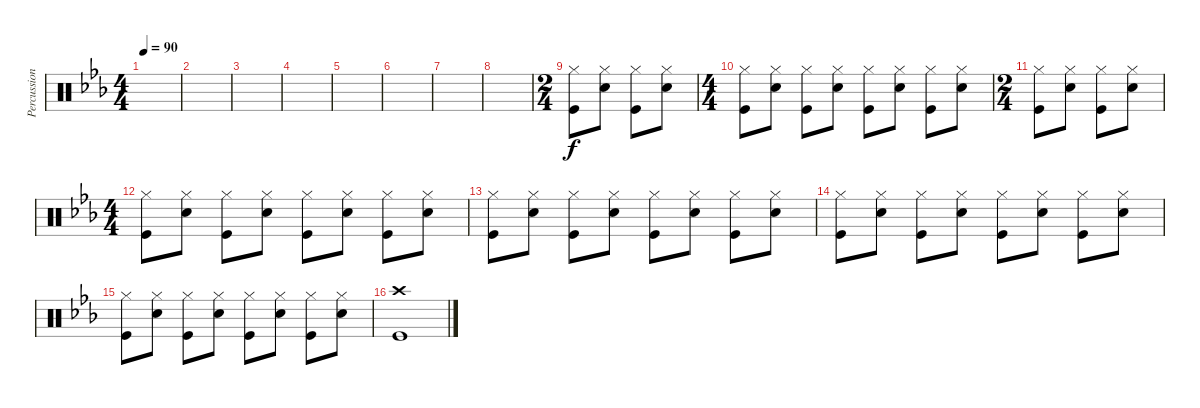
\track ("Percussions" "Percussion") {instrument percussion}
\staff {score}
\articulation defaults
\ts (4 4)
\tempo 90
\clef neutral
\ks eb
|
|
|
|
|
|
|
|
\ts (2 4)
("Hi-Hat (closed)" "Kick (hit)").8 ("Hi-Hat (closed)" "Snare (hit) 2").8 ("Hi-Hat (closed)" "Kick (hit)").8 ("Hi-Hat (closed)" "Snare (hit) 2").8 |
\ts (4 4)
("Hi-Hat (closed)" "Kick (hit)").8 ("Hi-Hat (closed)" "Snare (hit) 2").8 ("Hi-Hat (closed)" "Kick (hit)").8 ("Hi-Hat (closed)" "Snare (hit) 2").8 ("Hi-Hat (closed)" "Kick (hit)").8 ("Hi-Hat (closed)" "Snare (hit) 2").8 ("Hi-Hat (closed)" "Kick (hit)").8 ("Hi-Hat (closed)" "Snare (hit) 2").8 |
\ts (2 4)
("Hi-Hat (closed)" "Kick (hit)").8 ("Hi-Hat (closed)" "Snare (hit) 2").8 ("Hi-Hat (closed)" "Kick (hit)").8 ("Hi-Hat (closed)" "Snare (hit) 2").8 |
\ts (4 4)
("Hi-Hat (closed)" "Kick (hit)").8 ("Hi-Hat (closed)" "Snare (hit) 2").8 ("Hi-Hat (closed)" "Kick (hit)").8 ("Hi-Hat (closed)" "Snare (hit) 2").8 ("Hi-Hat (closed)" "Kick (hit)").8 ("Hi-Hat (closed)" "Snare (hit) 2").8 ("Hi-Hat (closed)" "Kick (hit)").8 ("Hi-Hat (closed)" "Snare (hit) 2").8 |
("Hi-Hat (closed)" "Kick (hit)").8 ("Hi-Hat (closed)" "Snare (hit) 2").8 ("Hi-Hat (closed)" "Kick (hit)").8 ("Hi-Hat (closed)" "Snare (hit) 2").8 ("Hi-Hat (closed)" "Kick (hit)").8 ("Hi-Hat (closed)" "Snare (hit) 2").8 ("Hi-Hat (closed)" "Kick (hit)").8 ("Hi-Hat (closed)" "Snare (hit) 2").8 |
("Hi-Hat (closed)" "Kick (hit)").8 ("Hi-Hat (closed)" "Snare (hit) 2").8 ("Hi-Hat (closed)" "Kick (hit)").8 ("Hi-Hat (closed)" "Snare (hit) 2").8 ("Hi-Hat (closed)" "Kick (hit)").8 ("Hi-Hat (closed)" "Snare (hit) 2").8 ("Hi-Hat (closed)" "Kick (hit)").8 ("Hi-Hat (closed)" "Snare (hit) 2").8 |
("Hi-Hat (closed)" "Kick (hit)").8 ("Hi-Hat (closed)" "Snare (hit) 2").8 ("Hi-Hat (closed)" "Kick (hit)").8 ("Hi-Hat (closed)" "Snare (hit) 2").8 ("Hi-Hat (closed)" "Kick (hit)").8 ("Hi-Hat (closed)" "Snare (hit) 2").8 ("Hi-Hat (closed)" "Kick (hit)").8 ("Hi-Hat (closed)" "Snare (hit) 2").8 |
("Crash high (hit)" "Kick (hit)").1
